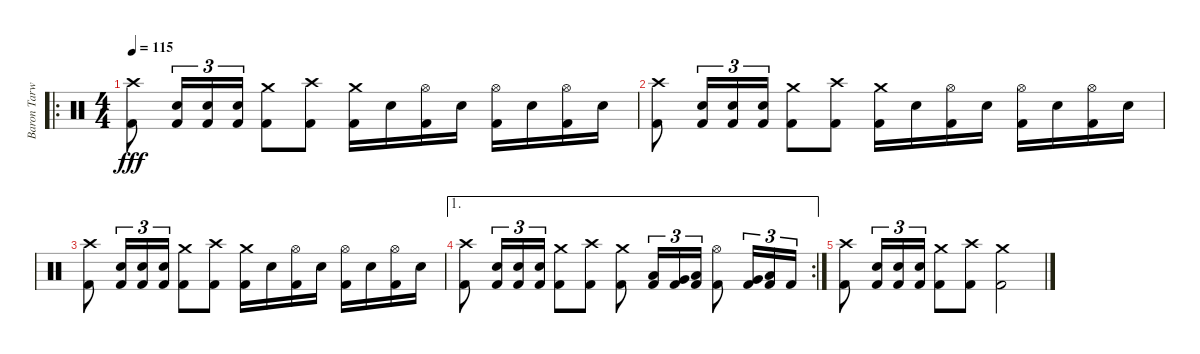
\track ("Baron Tarwonen" "Baron Tarw") {instrument percussion}
\staff {score}
\articulation defaults
\ro
\ts (4 4)
\tempo 115
\clef neutral
\ks c
("Crash high (hit)" "Kick (hit) 2").8{dy fff} ("Snare (hit) 2" "Kick (hit) 2").16{tu (3 2)} ("Snare (hit) 2" "Kick (hit) 2").16{tu (3 2)} ("Snare (hit) 2" "Kick (hit) 2").16{tu (3 2)} ("Crash medium (hit)" "Kick (hit) 2").8 ("Crash high (hit)" "Kick (hit) 2").8 ("Crash medium (hit)" "Kick (hit) 2").16 "Snare (hit) 2".16 ("Hi-Hat (open)" "Kick (hit) 2").16 "Snare (hit) 2".16 ("Hi-Hat (open)" "Kick (hit) 2").16 "Snare (hit) 2".16 ("Hi-Hat (open)" "Kick (hit) 2").16 "Snare (hit) 2".16 |
("Crash high (hit)" "Kick (hit) 2").8 ("Snare (hit) 2" "Kick (hit) 2").16{tu (3 2)} ("Snare (hit) 2" "Kick (hit) 2").16{tu (3 2)} ("Snare (hit) 2" "Kick (hit) 2").16{tu (3 2)} ("Crash medium (hit)" "Kick (hit) 2").8 ("Crash high (hit)" "Kick (hit) 2").8 ("Crash medium (hit)" "Kick (hit) 2").16 "Snare (hit) 2".16 ("Hi-Hat (open)" "Kick (hit) 2").16 "Snare (hit) 2".16 ("Hi-Hat (open)" "Kick (hit) 2").16 "Snare (hit) 2".16 ("Hi-Hat (open)" "Kick (hit) 2").16 "Snare (hit) 2".16 |
("Crash high (hit)" "Kick (hit) 2").8 ("Snare (hit) 2" "Kick (hit) 2").16{tu (3 2)} ("Snare (hit) 2" "Kick (hit) 2").16{tu (3 2)} ("Snare (hit) 2" "Kick (hit) 2").16{tu (3 2)} ("Crash medium (hit)" "Kick (hit) 2").8 ("Crash high (hit)" "Kick (hit) 2").8 ("Crash medium (hit)" "Kick (hit) 2").16 "Snare (hit) 2".16 ("Hi-Hat (open)" "Kick (hit) 2").16 "Snare (hit) 2".16 ("Hi-Hat (open)" "Kick (hit) 2").16 "Snare (hit) 2".16 ("Hi-Hat (open)" "Kick (hit) 2").16 "Snare (hit) 2".16 |
\ae 1
\rc 2
("Crash high (hit)" "Kick (hit) 2").8 ("Snare (hit) 2" "Kick (hit) 2").16{tu (3 2)} ("Snare (hit) 2" "Kick (hit) 2").16{tu (3 2)} ("Snare (hit) 2" "Kick (hit) 2").16{tu (3 2)} ("Crash medium (hit)" "Kick (hit) 2").8 ("Crash high (hit)" "Kick (hit) 2").8 ("Crash medium (hit)" "Kick (hit) 2").8 ("Low Tom (hit)" "Kick (hit) 2").16{tu (3 2)} ("Very Low Tom (hit)" "Kick (hit) 2").16{tu (3 2)} ("Low Floor Tom (hit)" "Kick (hit) 2").16{tu (3 2)} ("Hi-Hat (open)" "Kick (hit) 2").8 ("Very Low Tom (hit)" "Kick (hit) 2").16{tu (3 2)} ("Low Floor Tom (hit)" "Kick (hit) 2").16{tu (3 2)} "Kick (hit) 2".16{tu (3 2)} |
("Crash high (hit)" "Kick (hit) 2").8 ("Snare (hit) 2" "Kick (hit) 2").16{tu (3 2)} ("Snare (hit) 2" "Kick (hit) 2").16{tu (3 2)} ("Snare (hit) 2" "Kick (hit) 2").16{tu (3 2)} ("Crash medium (hit)" "Kick (hit) 2").8 ("Crash high (hit)" "Kick (hit) 2").8 ("Crash medium (hit)" "Kick (hit) 2").2
